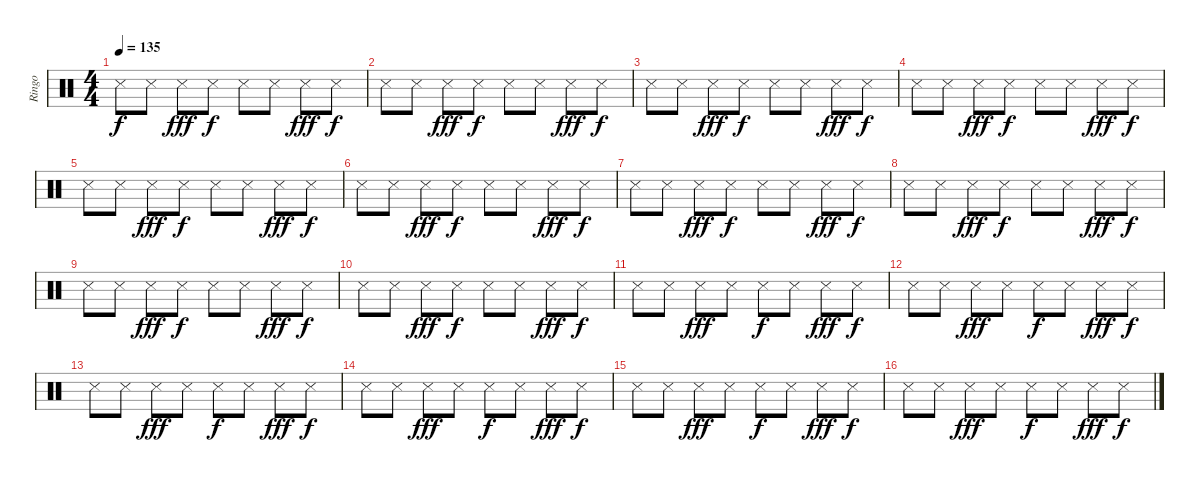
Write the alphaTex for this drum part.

\track ("Ringo" "Ringo") {instrument percussion}
\staff {score}
\articulation defaults
\ts (4 4)
\tempo 135
\clef neutral
\ks c "Snare (side stick) 3".8{dy f} "Snare (side stick) 3".8 "Snare (side stick) 3".8{dy fff} "Snare (side stick) 3".8{dy f} "Snare (side stick) 3".8 "Snare (side stick) 3".8 "Snare (side stick) 3".8{dy fff} "Snare (side stick) 3".8{dy f}
|
"Snare (side stick) 3".8 "Snare (side stick) 3".8 "Snare (side stick) 3".8{dy fff} "Snare (side stick) 3".8{dy f} "Snare (side stick) 3".8 "Snare (side stick) 3".8 "Snare (side stick) 3".8{dy fff} "Snare (side stick) 3".8{dy f} |
"Snare (side stick) 3".8 "Snare (side stick) 3".8 "Snare (side stick) 3".8{dy fff} "Snare (side stick) 3".8{dy f} "Snare (side stick) 3".8 "Snare (side stick) 3".8 "Snare (side stick) 3".8{dy fff} "Snare (side stick) 3".8{dy f} |
"Snare (side stick) 3".8 "Snare (side stick) 3".8 "Snare (side stick) 3".8{dy fff} "Snare (side stick) 3".8{dy f} "Snare (side stick) 3".8 "Snare (side stick) 3".8 "Snare (side stick) 3".8{dy fff} "Snare (side stick) 3".8{dy f} |
"Snare (side stick) 3".8 "Snare (side stick) 3".8 "Snare (side stick) 3".8{dy fff} "Snare (side stick) 3".8{dy f} "Snare (side stick) 3".8 "Snare (side stick) 3".8 "Snare (side stick) 3".8{dy fff} "Snare (side stick) 3".8{dy f} |
"Snare (side stick) 3".8 "Snare (side stick) 3".8 "Snare (side stick) 3".8{dy fff} "Snare (side stick) 3".8{dy f} "Snare (side stick) 3".8 "Snare (side stick) 3".8 "Snare (side stick) 3".8{dy fff} "Snare (side stick) 3".8{dy f} |
"Snare (side stick) 3".8 "Snare (side stick) 3".8 "Snare (side stick) 3".8{dy fff} "Snare (side stick) 3".8{dy f} "Snare (side stick) 3".8 "Snare (side stick) 3".8 "Snare (side stick) 3".8{dy fff} "Snare (side stick) 3".8{dy f} |
"Snare (side stick) 3".8 "Snare (side stick) 3".8 "Snare (side stick) 3".8{dy fff} "Snare (side stick) 3".8{dy f} "Snare (side stick) 3".8 "Snare (side stick) 3".8 "Snare (side stick) 3".8{dy fff} "Snare (side stick) 3".8{dy f} |
"Snare (side stick) 3".8 "Snare (side stick) 3".8 "Snare (side stick) 3".8{dy fff} "Snare (side stick) 3".8{dy f} "Snare (side stick) 3".8 "Snare (side stick) 3".8 "Snare (side stick) 3".8{dy fff} "Snare (side stick) 3".8{dy f} |
"Snare (side stick) 3".8 "Snare (side stick) 3".8 "Snare (side stick) 3".8{dy fff} "Snare (side stick) 3".8{dy f} "Snare (side stick) 3".8 "Snare (side stick) 3".8 "Snare (side stick) 3".8{dy fff} "Snare (side stick) 3".8{dy f} |
"Snare (side stick) 3".8 "Snare (side stick) 3".8 "Snare (side stick) 3".8{dy fff} "Snare (side stick) 3".8 "Snare (side stick) 3".8{dy f} "Snare (side stick) 3".8 "Snare (side stick) 3".8{dy fff} "Snare (side stick) 3".8{dy f} |
"Snare (side stick) 3".8 "Snare (side stick) 3".8 "Snare (side stick) 3".8{dy fff} "Snare (side stick) 3".8 "Snare (side stick) 3".8{dy f} "Snare (side stick) 3".8 "Snare (side stick) 3".8{dy fff} "Snare (side stick) 3".8{dy f} |
"Snare (side stick) 3".8 "Snare (side stick) 3".8 "Snare (side stick) 3".8{dy fff} "Snare (side stick) 3".8 "Snare (side stick) 3".8{dy f} "Snare (side stick) 3".8 "Snare (side stick) 3".8{dy fff} "Snare (side stick) 3".8{dy f} |
"Snare (side stick) 3".8 "Snare (side stick) 3".8 "Snare (side stick) 3".8{dy fff} "Snare (side stick) 3".8 "Snare (side stick) 3".8{dy f} "Snare (side stick) 3".8 "Snare (side stick) 3".8{dy fff} "Snare (side stick) 3".8{dy f} |
"Snare (side stick) 3".8 "Snare (side stick) 3".8 "Snare (side stick) 3".8{dy fff} "Snare (side stick) 3".8 "Snare (side stick) 3".8{dy f} "Snare (side stick) 3".8 "Snare (side stick) 3".8{dy fff} "Snare (side stick) 3".8{dy f} |
"Snare (side stick) 3".8 "Snare (side stick) 3".8 "Snare (side stick) 3".8{dy fff} "Snare (side stick) 3".8 "Snare (side stick) 3".8{dy f} "Snare (side stick) 3".8 "Snare (side stick) 3".8{dy fff} "Snare (side stick) 3".8{dy f}
